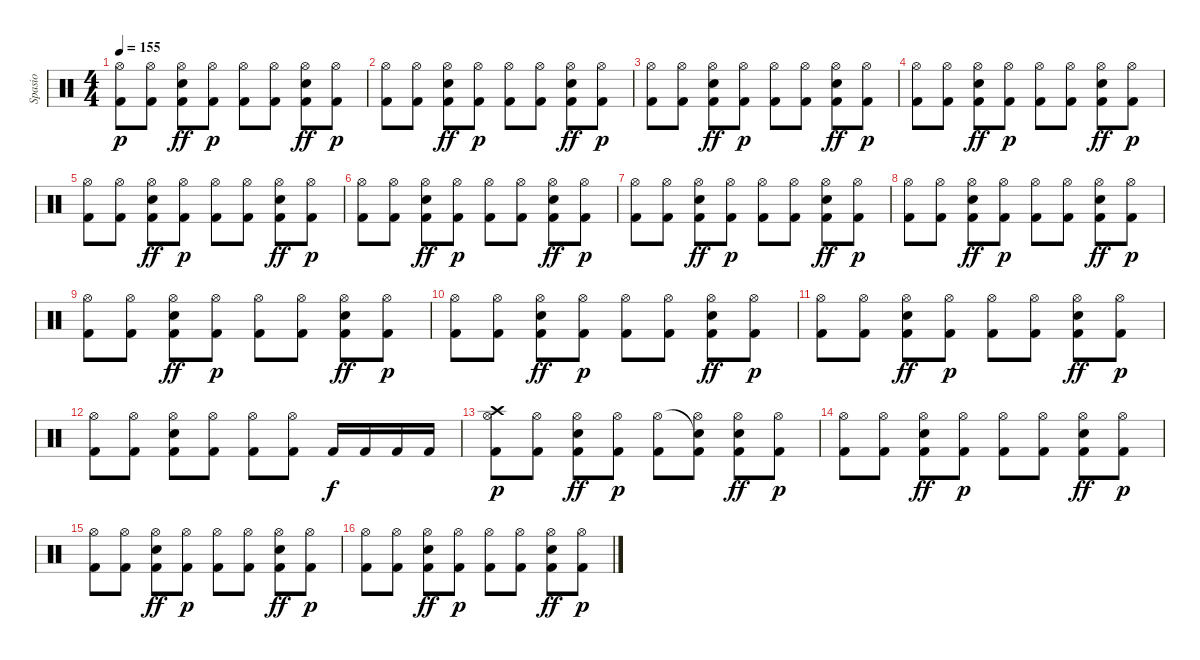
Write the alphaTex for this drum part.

\track ("Spasio" "Spasio") {instrument percussion}
\staff {score}
\articulation defaults
\ts (4 4)
\tempo 155
\clef neutral
\ks c
("Hi-Hat (open)" "Kick (hit) 2").8{dy p} ("Hi-Hat (open)" "Kick (hit) 2").8 ("Hi-Hat (open)" "Electric Snare (hit)" "Kick (hit) 2").8{dy ff} ("Hi-Hat (open)" "Kick (hit) 2").8{dy p} ("Hi-Hat (open)" "Kick (hit) 2").8 ("Hi-Hat (open)" "Kick (hit) 2").8 ("Hi-Hat (open)" "Electric Snare (hit)" "Kick (hit) 2").8{dy ff} ("Hi-Hat (open)" "Kick (hit) 2").8{dy p} |
("Hi-Hat (open)" "Kick (hit) 2").8 ("Hi-Hat (open)" "Kick (hit) 2").8 ("Hi-Hat (open)" "Electric Snare (hit)" "Kick (hit) 2").8{dy ff} ("Hi-Hat (open)" "Kick (hit) 2").8{dy p} ("Hi-Hat (open)" "Kick (hit) 2").8 ("Hi-Hat (open)" "Kick (hit) 2").8 ("Hi-Hat (open)" "Electric Snare (hit)" "Kick (hit) 2").8{dy ff} ("Hi-Hat (open)" "Kick (hit) 2").8{dy p} |
("Hi-Hat (open)" "Kick (hit) 2").8 ("Hi-Hat (open)" "Kick (hit) 2").8 ("Hi-Hat (open)" "Electric Snare (hit)" "Kick (hit) 2").8{dy ff} ("Hi-Hat (open)" "Kick (hit) 2").8{dy p} ("Hi-Hat (open)" "Kick (hit) 2").8 ("Hi-Hat (open)" "Kick (hit) 2").8 ("Hi-Hat (open)" "Electric Snare (hit)" "Kick (hit) 2").8{dy ff} ("Hi-Hat (open)" "Kick (hit) 2").8{dy p} |
("Hi-Hat (open)" "Kick (hit) 2").8 ("Hi-Hat (open)" "Kick (hit) 2").8 ("Hi-Hat (open)" "Electric Snare (hit)" "Kick (hit) 2").8{dy ff} ("Hi-Hat (open)" "Kick (hit) 2").8{dy p} ("Hi-Hat (open)" "Kick (hit) 2").8 ("Hi-Hat (open)" "Kick (hit) 2").8 ("Hi-Hat (open)" "Electric Snare (hit)" "Kick (hit) 2").8{dy ff} ("Hi-Hat (open)" "Kick (hit) 2").8{dy p} |
("Hi-Hat (open)" "Kick (hit) 2").8 ("Hi-Hat (open)" "Kick (hit) 2").8 ("Hi-Hat (open)" "Electric Snare (hit)" "Kick (hit) 2").8{dy ff} ("Hi-Hat (open)" "Kick (hit) 2").8{dy p} ("Hi-Hat (open)" "Kick (hit) 2").8 ("Hi-Hat (open)" "Kick (hit) 2").8 ("Hi-Hat (open)" "Electric Snare (hit)" "Kick (hit) 2").8{dy ff} ("Hi-Hat (open)" "Kick (hit) 2").8{dy p} |
("Hi-Hat (open)" "Kick (hit) 2").8 ("Hi-Hat (open)" "Kick (hit) 2").8 ("Hi-Hat (open)" "Electric Snare (hit)" "Kick (hit) 2").8{dy ff} ("Hi-Hat (open)" "Kick (hit) 2").8{dy p} ("Hi-Hat (open)" "Kick (hit) 2").8 ("Hi-Hat (open)" "Kick (hit) 2").8 ("Hi-Hat (open)" "Electric Snare (hit)" "Kick (hit) 2").8{dy ff} ("Hi-Hat (open)" "Kick (hit) 2").8{dy p} |
("Hi-Hat (open)" "Kick (hit) 2").8 ("Hi-Hat (open)" "Kick (hit) 2").8 ("Hi-Hat (open)" "Electric Snare (hit)" "Kick (hit) 2").8{dy ff} ("Hi-Hat (open)" "Kick (hit) 2").8{dy p} ("Hi-Hat (open)" "Kick (hit) 2").8 ("Hi-Hat (open)" "Kick (hit) 2").8 ("Hi-Hat (open)" "Electric Snare (hit)" "Kick (hit) 2").8{dy ff} ("Hi-Hat (open)" "Kick (hit) 2").8{dy p} |
("Hi-Hat (open)" "Kick (hit) 2").8 ("Hi-Hat (open)" "Kick (hit) 2").8 ("Hi-Hat (open)" "Electric Snare (hit)" "Kick (hit) 2").8{dy ff} ("Hi-Hat (open)" "Kick (hit) 2").8{dy p} ("Hi-Hat (open)" "Kick (hit) 2").8 ("Hi-Hat (open)" "Kick (hit) 2").8 ("Hi-Hat (open)" "Electric Snare (hit)" "Kick (hit) 2").8{dy ff} ("Hi-Hat (open)" "Kick (hit) 2").8{dy p} |
("Hi-Hat (open)" "Kick (hit) 2").8 ("Hi-Hat (open)" "Kick (hit) 2").8 ("Hi-Hat (open)" "Electric Snare (hit)" "Kick (hit) 2").8{dy ff} ("Hi-Hat (open)" "Kick (hit) 2").8{dy p} ("Hi-Hat (open)" "Kick (hit) 2").8 ("Hi-Hat (open)" "Kick (hit) 2").8 ("Hi-Hat (open)" "Electric Snare (hit)" "Kick (hit) 2").8{dy ff} ("Hi-Hat (open)" "Kick (hit) 2").8{dy p} |
("Hi-Hat (open)" "Kick (hit) 2").8 ("Hi-Hat (open)" "Kick (hit) 2").8 ("Hi-Hat (open)" "Electric Snare (hit)" "Kick (hit) 2").8{dy ff} ("Hi-Hat (open)" "Kick (hit) 2").8{dy p} ("Hi-Hat (open)" "Kick (hit) 2").8 ("Hi-Hat (open)" "Kick (hit) 2").8 ("Hi-Hat (open)" "Electric Snare (hit)" "Kick (hit) 2").8{dy ff} ("Hi-Hat (open)" "Kick (hit) 2").8{dy p} |
("Hi-Hat (open)" "Kick (hit) 2").8 ("Hi-Hat (open)" "Kick (hit) 2").8 ("Hi-Hat (open)" "Electric Snare (hit)" "Kick (hit) 2").8{dy ff} ("Hi-Hat (open)" "Kick (hit) 2").8{dy p} ("Hi-Hat (open)" "Kick (hit) 2").8 ("Hi-Hat (open)" "Kick (hit) 2").8 ("Hi-Hat (open)" "Electric Snare (hit)" "Kick (hit) 2").8{dy ff} ("Hi-Hat (open)" "Kick (hit) 2").8{dy p} |
("Hi-Hat (open)" "Kick (hit) 2").8 ("Hi-Hat (open)" "Kick (hit) 2").8 ("Hi-Hat (open)" "Electric Snare (hit)" "Kick (hit) 2").8 ("Hi-Hat (open)" "Kick (hit) 2").8 ("Hi-Hat (open)" "Kick (hit) 2").8 ("Hi-Hat (open)" "Kick (hit) 2").8 "Kick (hit) 2".16{dy f} "Kick (hit) 2".16 "Kick (hit) 2".16 "Kick (hit) 2".16 |
("Crash high (hit)" "Hi-Hat (open)" "Kick (hit) 2").8{dy p} ("Hi-Hat (open)" "Kick (hit) 2").8 ("Hi-Hat (open)" "Electric Snare (hit)" "Kick (hit) 2").8{dy ff} ("Hi-Hat (open)" "Kick (hit) 2").8{dy p} ("Hi-Hat (open)" "Kick (hit) 2").8 ("Snare (hit)"{t} "Hi-Hat (open)" "Kick (hit) 2").8 ("Hi-Hat (open)" "Electric Snare (hit)" "Kick (hit) 2").8{dy ff} ("Hi-Hat (open)" "Kick (hit) 2").8{dy p} |
("Hi-Hat (open)" "Kick (hit) 2").8 ("Hi-Hat (open)" "Kick (hit) 2").8 ("Hi-Hat (open)" "Electric Snare (hit)" "Kick (hit) 2").8{dy ff} ("Hi-Hat (open)" "Kick (hit) 2").8{dy p} ("Hi-Hat (open)" "Kick (hit) 2").8 ("Hi-Hat (open)" "Kick (hit) 2").8 ("Hi-Hat (open)" "Electric Snare (hit)" "Kick (hit) 2").8{dy ff} ("Hi-Hat (open)" "Kick (hit) 2").8{dy p} |
("Hi-Hat (open)" "Kick (hit) 2").8 ("Hi-Hat (open)" "Kick (hit) 2").8 ("Hi-Hat (open)" "Electric Snare (hit)" "Kick (hit) 2").8{dy ff} ("Hi-Hat (open)" "Kick (hit) 2").8{dy p} ("Hi-Hat (open)" "Kick (hit) 2").8 ("Hi-Hat (open)" "Kick (hit) 2").8 ("Hi-Hat (open)" "Electric Snare (hit)" "Kick (hit) 2").8{dy ff} ("Hi-Hat (open)" "Kick (hit) 2").8{dy p} |
("Hi-Hat (open)" "Kick (hit) 2").8 ("Hi-Hat (open)" "Kick (hit) 2").8 ("Hi-Hat (open)" "Electric Snare (hit)" "Kick (hit) 2").8{dy ff} ("Hi-Hat (open)" "Kick (hit) 2").8{dy p} ("Hi-Hat (open)" "Kick (hit) 2").8 ("Hi-Hat (open)" "Kick (hit) 2").8 ("Hi-Hat (open)" "Electric Snare (hit)" "Kick (hit) 2").8{dy ff} ("Hi-Hat (open)" "Kick (hit) 2").8{dy p}
